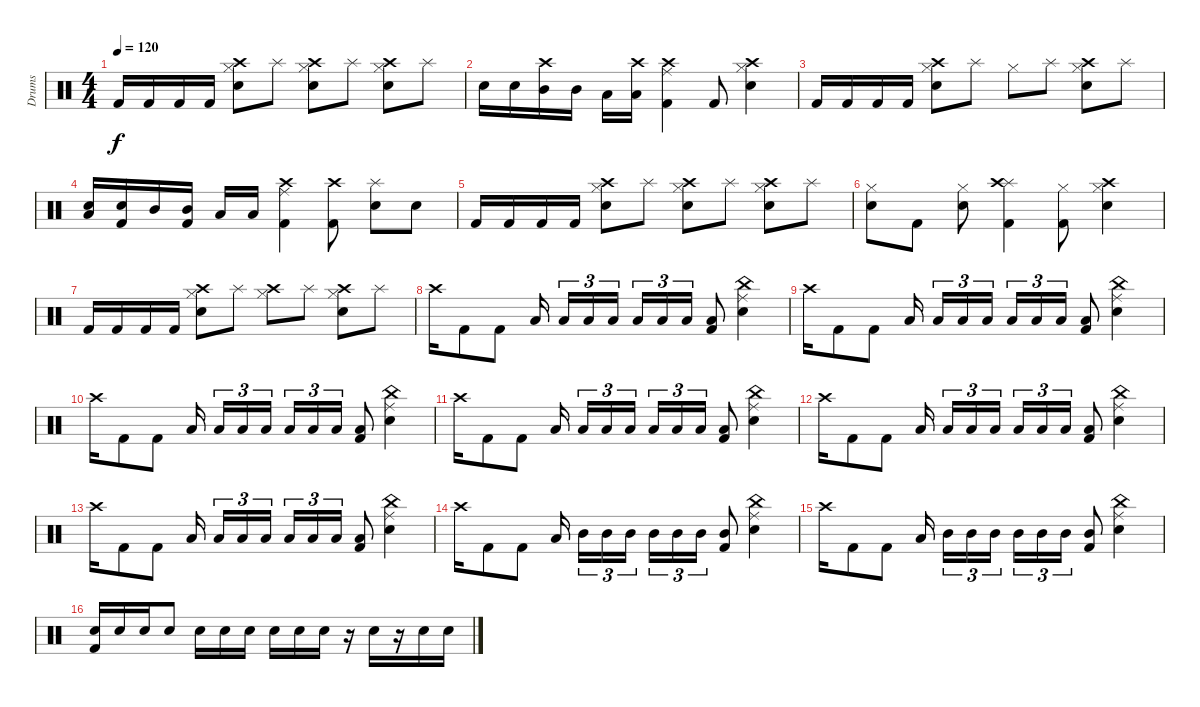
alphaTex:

\track ("Drums" "Drums") {instrument percussion}
\staff {score}
\articulation defaults
\ts (4 4)
\tempo 120
\clef neutral
\ks c "Kick (hit) 2".16{dy f} "Kick (hit) 2".16 "Kick (hit) 2".16 "Kick (hit) 2".16
("Crash high (hit)" "Snare (hit) 2" "Hi-Hat (closed)").8 "Splash (hit)".8 ("Crash high (hit)" "Snare (hit) 2" "Hi-Hat (closed)").8 "Splash (hit)".8 ("Crash high (hit)" "Snare (hit) 2" "Hi-Hat (closed)").8 "Splash (hit)".8 |
"Snare (hit) 2".16 "Snare (hit) 2".16 ("Crash high (hit)" "Mid Tom (hit)").16 "Mid Tom (hit)".16 "Low Tom (hit)".16 ("Crash high (hit)" "Low Tom (hit)").16 ("Kick (hit) 2" "Crash high (hit)" "Ride (middle)").4 "Kick (hit) 2".8 ("Crash high (hit)" "Hi-Hat (closed)" "Snare (hit) 2").4 |
"Kick (hit) 2".16 "Kick (hit) 2".16 "Kick (hit) 2".16 "Kick (hit) 2".16 ("Crash high (hit)" "Snare (hit) 2" "Hi-Hat (closed)").8 "Splash (hit)".8 "Hi-Hat (closed)".8 "Splash (hit)".8 ("Crash high (hit)" "Snare (hit) 2" "Hi-Hat (closed)").8 "Splash (hit)".8 |
("Snare (hit) 2" "Low Tom (hit)").16 ("Snare (hit) 2" "Kick (hit) 2").16 "Mid Tom (hit)".16 ("Mid Tom (hit)" "Kick (hit) 2").16 "Low Tom (hit)".16 "Low Tom (hit)".16 ("Kick (hit) 2" "Crash high (hit)" "Ride (middle)").4 ("Crash high (hit)" "Kick (hit) 2").8 ("Splash (hit)" "Snare (hit) 2").8 "Snare (hit) 2".8 |
"Kick (hit) 2".16 "Kick (hit) 2".16 "Kick (hit) 2".16 "Kick (hit) 2".16 ("Crash high (hit)" "Snare (hit) 2" "Hi-Hat (closed)").8 "Splash (hit)".8 ("Crash high (hit)" "Snare (hit) 2" "Hi-Hat (closed)").8 "Splash (hit)".8 ("Crash high (hit)" "Snare (hit) 2" "Hi-Hat (closed)").8 "Splash (hit)".8 |
("Hi-Hat (closed)" "Snare (hit) 2").8 "Kick (hit) 2".8 ("Hi-Hat (closed)" "Snare (hit) 2").8 ("Splash (hit)" "Crash high (hit)" "Kick (hit) 2").4 ("Hi-Hat (closed)" "Kick (hit) 2").8 ("Crash high (hit)" "Hi-Hat (closed)" "Snare (hit) 2").4 |
"Kick (hit) 2".16 "Kick (hit) 2".16 "Kick (hit) 2".16 "Kick (hit) 2".16 ("Crash high (hit)" "Snare (hit) 2" "Hi-Hat (closed)").8 "Splash (hit)".8 ("Hi-Hat (closed)" "Crash high (hit)").8 "Splash (hit)".8 ("Crash high (hit)" "Snare (hit) 2" "Hi-Hat (closed)").8 "Splash (hit)".8 |
"Crash high (hit)".16 "Kick (hit) 2".8 "Kick (hit) 2".8 "Low Tom (hit)".16{beam splitsecondary} "Low Tom (hit)".16{tu (3 2)} "Low Tom (hit)".16{tu (3 2)} "Low Tom (hit)".16{tu (3 2)} "Low Tom (hit)".16{tu (3 2)} "Low Tom (hit)".16{tu (3 2)} "Low Tom (hit)".16{tu (3 2)} ("Low Tom (hit)" "Kick (hit) 2").8 ("China (hit)" "Ride (middle)" "Snare (hit) 2").4 |
"Crash high (hit)".16 "Kick (hit) 2".8 "Kick (hit) 2".8 "Low Tom (hit)".16{beam splitsecondary} "Low Tom (hit)".16{tu (3 2)} "Low Tom (hit)".16{tu (3 2)} "Low Tom (hit)".16{tu (3 2)} "Low Tom (hit)".16{tu (3 2)} "Low Tom (hit)".16{tu (3 2)} "Low Tom (hit)".16{tu (3 2)} ("Low Tom (hit)" "Kick (hit) 2").8 ("China (hit)" "Ride (middle)" "Snare (hit) 2").4 |
"Crash high (hit)".16 "Kick (hit) 2".8 "Kick (hit) 2".8 "Low Tom (hit)".16{beam splitsecondary} "Low Tom (hit)".16{tu (3 2)} "Low Tom (hit)".16{tu (3 2)} "Low Tom (hit)".16{tu (3 2)} "Low Tom (hit)".16{tu (3 2)} "Low Tom (hit)".16{tu (3 2)} "Low Tom (hit)".16{tu (3 2)} ("Low Tom (hit)" "Kick (hit) 2").8 ("China (hit)" "Ride (middle)" "Snare (hit) 2").4 |
"Crash high (hit)".16 "Kick (hit) 2".8 "Kick (hit) 2".8 "Low Tom (hit)".16{beam splitsecondary} "Low Tom (hit)".16{tu (3 2)} "Low Tom (hit)".16{tu (3 2)} "Low Tom (hit)".16{tu (3 2)} "Low Tom (hit)".16{tu (3 2)} "Low Tom (hit)".16{tu (3 2)} "Low Tom (hit)".16{tu (3 2)} ("Low Tom (hit)" "Kick (hit) 2").8 ("China (hit)" "Ride (middle)" "Snare (hit) 2").4 |
"Crash high (hit)".16 "Kick (hit) 2".8 "Kick (hit) 2".8 "Low Tom (hit)".16{beam splitsecondary} "Low Tom (hit)".16{tu (3 2)} "Low Tom (hit)".16{tu (3 2)} "Low Tom (hit)".16{tu (3 2)} "Low Tom (hit)".16{tu (3 2)} "Low Tom (hit)".16{tu (3 2)} "Low Tom (hit)".16{tu (3 2)} ("Low Tom (hit)" "Kick (hit) 2").8 ("China (hit)" "Ride (middle)" "Snare (hit) 2").4 |
"Crash high (hit)".16 "Kick (hit) 2".8 "Kick (hit) 2".8 "Low Tom (hit)".16{beam splitsecondary} "Low Tom (hit)".16{tu (3 2)} "Low Tom (hit)".16{tu (3 2)} "Low Tom (hit)".16{tu (3 2)} "Low Tom (hit)".16{tu (3 2)} "Low Tom (hit)".16{tu (3 2)} "Low Tom (hit)".16{tu (3 2)} ("Low Tom (hit)" "Kick (hit) 2").8 ("China (hit)" "Ride (middle)" "Snare (hit) 2").4 |
"Crash high (hit)".16 "Kick (hit) 2".8 "Kick (hit) 2".8 "Low Tom (hit)".16{beam splitsecondary} "Mid Tom (hit)".16{tu (3 2)} "Mid Tom (hit)".16{tu (3 2)} "Mid Tom (hit)".16{tu (3 2)} "Mid Tom (hit)".16{tu (3 2)} "Mid Tom (hit)".16{tu (3 2)} "Mid Tom (hit)".16{tu (3 2)} ("Mid Tom (hit)" "Kick (hit) 2").8 ("China (hit)" "Ride (middle)" "Snare (hit) 2").4 |
"Crash high (hit)".16 "Kick (hit) 2".8 "Kick (hit) 2".8 "Low Tom (hit)".16{beam splitsecondary} "Mid Tom (hit)".16{tu (3 2)} "Mid Tom (hit)".16{tu (3 2)} "Mid Tom (hit)".16{tu (3 2)} "Mid Tom (hit)".16{tu (3 2)} "Mid Tom (hit)".16{tu (3 2)} "Mid Tom (hit)".16{tu (3 2)} ("Mid Tom (hit)" "Kick (hit) 2").8 ("China (hit)" "Ride (middle)" "Snare (hit) 2").4 |
("Kick (hit) 2" "Snare (hit) 2").16 "Snare (hit) 2".16 "Snare (hit) 2".16 "Snare (hit) 2".8 "Snare (hit) 2".16 "Snare (hit) 2".16 "Snare (hit) 2".16 "Snare (hit) 2".16 "Snare (hit) 2".16 "Snare (hit) 2".16 r.16 "Snare (hit) 2".16 r.16 "Snare (hit) 2".16 "Snare (hit) 2".16
